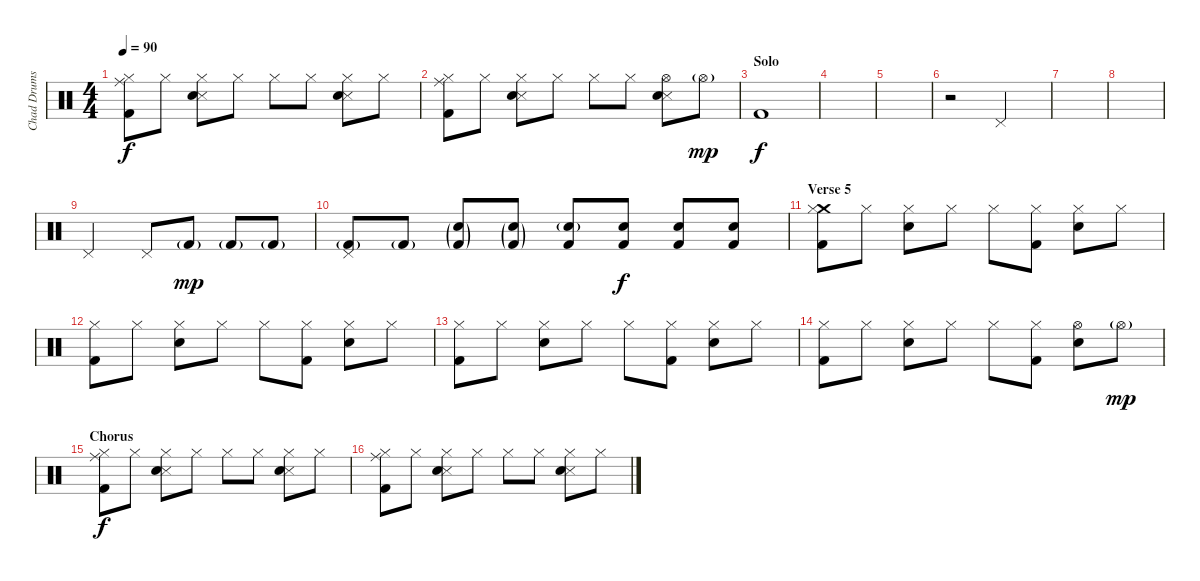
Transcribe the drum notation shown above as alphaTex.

\track ("Chad Drums" "Chad Drums") {instrument percussion}
\staff {score}
\articulation defaults
\ts (4 4)
\tempo 90
\clef neutral
\ks c
("Ride (middle)" "Hi-Hat (closed)" "Kick (hit) 2").8{dy f} "Hi-Hat (closed)".8 ("Hi-Hat (closed)" "Snare (side stick) 3" "Snare (hit) 2").8 "Hi-Hat (closed)".8 "Hi-Hat (closed)".8 "Hi-Hat (closed)".8 ("Hi-Hat (closed)" "Snare (side stick) 3" "Snare (hit) 2").8 "Hi-Hat (closed)".8 |
("Ride (middle)" "Hi-Hat (closed)" "Kick (hit) 2").8 "Hi-Hat (closed)".8 ("Hi-Hat (closed)" "Snare (side stick) 3" "Snare (hit) 2").8 "Hi-Hat (closed)".8 "Hi-Hat (closed)".8 "Hi-Hat (closed)".8 ("Hi-Hat (open)" "Snare (side stick) 3" "Snare (hit) 2").8 "Hi-Hat (open)"{g}.8{dy mp} |
\section ("" "Solo")
"Kick (hit) 2".1{dy f} |
|
|
r.2 "Pedal Hi-Hat (hit)".2 |
|
|
"Pedal Hi-Hat (hit)".2 "Pedal Hi-Hat (hit)".8 "Kick (hit) 2"{g}.8{dy mp} "Kick (hit) 2"{g}.8 "Kick (hit) 2"{g}.8 |
("Pedal Hi-Hat (hit)" "Kick (hit) 2"{g}).8 "Kick (hit) 2"{g}.8 ("Snare (hit) 2"{g} "Kick (hit) 2"{g}).8 ("Snare (hit) 2"{g} "Kick (hit) 2"{g}).8 ("Snare (hit) 2"{g} "Kick (hit) 2").8 ("Snare (hit) 2" "Kick (hit) 2").8{dy f} ("Snare (hit) 2" "Kick (hit) 2").8 ("Snare (hit) 2" "Kick (hit) 2").8 |
\section ("" "Verse 5")
("Crash medium (hit)" "Hi-Hat (closed)" "Kick (hit) 2").8 "Hi-Hat (closed)".8 ("Hi-Hat (closed)" "Snare (hit) 2").8 "Hi-Hat (closed)".8 "Hi-Hat (closed)".8 ("Hi-Hat (closed)" "Kick (hit) 2").8 ("Hi-Hat (closed)" "Snare (hit) 2").8 "Hi-Hat (closed)".8 |
("Hi-Hat (closed)" "Kick (hit) 2").8 "Hi-Hat (closed)".8 ("Hi-Hat (closed)" "Snare (hit) 2").8 "Hi-Hat (closed)".8 "Hi-Hat (closed)".8 ("Hi-Hat (closed)" "Kick (hit) 2").8 ("Hi-Hat (closed)" "Snare (hit) 2").8 "Hi-Hat (closed)".8 |
("Hi-Hat (closed)" "Kick (hit) 2").8 "Hi-Hat (closed)".8 ("Hi-Hat (closed)" "Snare (hit) 2").8 "Hi-Hat (closed)".8 "Hi-Hat (closed)".8 ("Hi-Hat (closed)" "Kick (hit) 2").8 ("Hi-Hat (closed)" "Snare (hit) 2").8 "Hi-Hat (closed)".8 |
("Hi-Hat (closed)" "Kick (hit) 2").8 "Hi-Hat (closed)".8 ("Hi-Hat (closed)" "Snare (hit) 2").8 "Hi-Hat (closed)".8 "Hi-Hat (closed)".8 ("Hi-Hat (closed)" "Kick (hit) 2").8 ("Hi-Hat (open)" "Snare (hit) 2").8 "Hi-Hat (open)"{g}.8{dy mp} |
\section ("" "Chorus")
("Ride (middle)" "Hi-Hat (closed)" "Kick (hit) 2").8{dy f} "Hi-Hat (closed)".8 ("Hi-Hat (closed)" "Snare (side stick) 3" "Snare (hit) 2").8 "Hi-Hat (closed)".8 "Hi-Hat (closed)".8 "Hi-Hat (closed)".8 ("Hi-Hat (closed)" "Snare (side stick) 3" "Snare (hit) 2").8 "Hi-Hat (closed)".8 |
("Ride (middle)" "Hi-Hat (closed)" "Kick (hit) 2").8 "Hi-Hat (closed)".8 ("Hi-Hat (closed)" "Snare (side stick) 3" "Snare (hit) 2").8 "Hi-Hat (closed)".8 "Hi-Hat (closed)".8 "Hi-Hat (closed)".8 ("Hi-Hat (closed)" "Snare (side stick) 3" "Snare (hit) 2").8 "Hi-Hat (closed)".8
